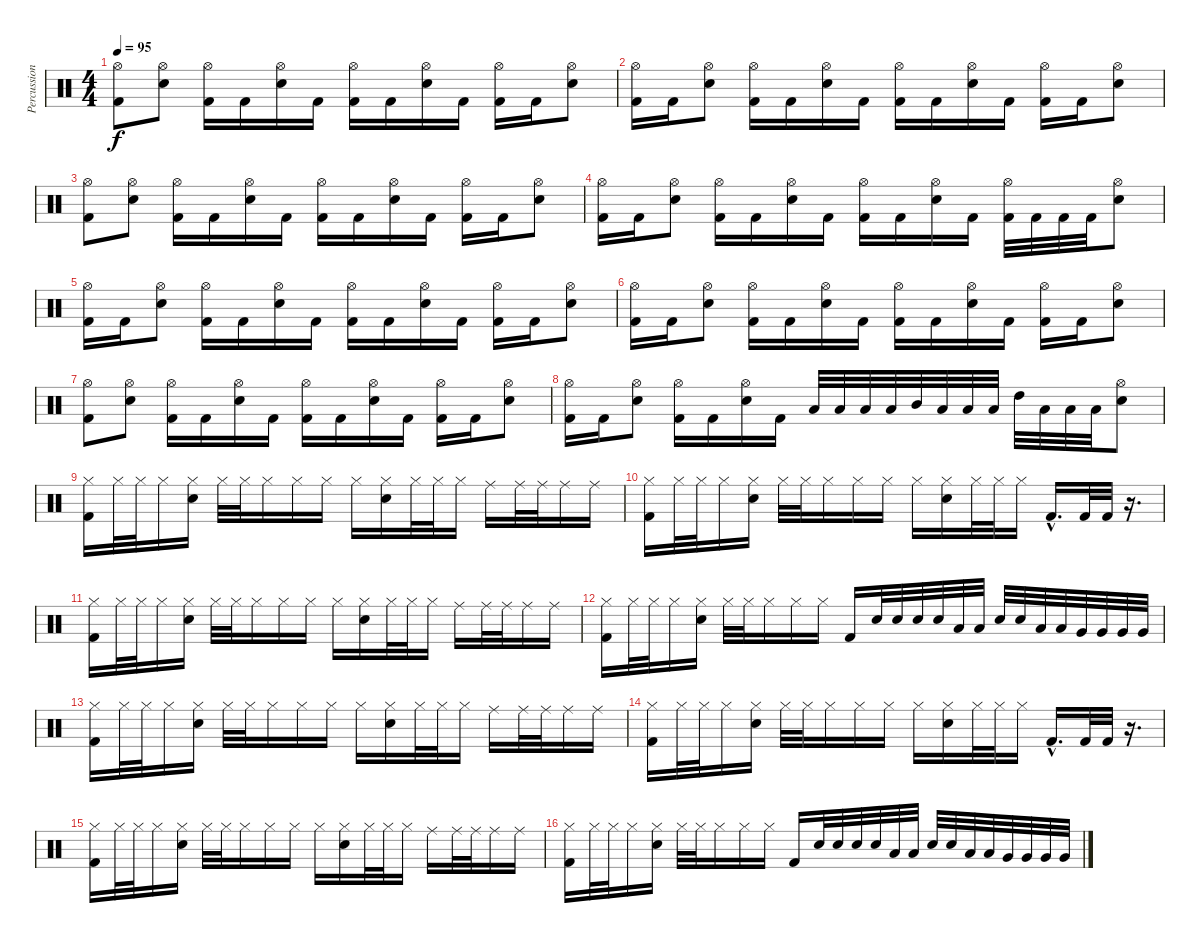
\track ("Percussion" "Percussion") {instrument percussion}
\staff {score}
\articulation defaults
\ts (4 4)
\tempo 95
\clef neutral
\ks c
("Hi-Hat (open)" "Kick (hit) 2").8{dy f} ("Hi-Hat (open)" "Electric Snare (hit)").8 ("Hi-Hat (open)" "Kick (hit) 2").16 "Kick (hit) 2".16 ("Hi-Hat (open)" "Electric Snare (hit)").16 "Kick (hit) 2".16 ("Hi-Hat (open)" "Kick (hit) 2").16 "Kick (hit) 2".16 ("Hi-Hat (open)" "Electric Snare (hit)").16 "Kick (hit) 2".16 ("Hi-Hat (open)" "Kick (hit) 2").16 "Kick (hit) 2".16 ("Hi-Hat (open)" "Electric Snare (hit)").8 |
("Hi-Hat (open)" "Kick (hit) 2").16 "Kick (hit) 2".16 ("Hi-Hat (open)" "Electric Snare (hit)").8 ("Hi-Hat (open)" "Kick (hit) 2").16 "Kick (hit) 2".16 ("Hi-Hat (open)" "Electric Snare (hit)").16 "Kick (hit) 2".16 ("Hi-Hat (open)" "Kick (hit) 2").16 "Kick (hit) 2".16 ("Hi-Hat (open)" "Electric Snare (hit)").16 "Kick (hit) 2".16 ("Hi-Hat (open)" "Kick (hit) 2").16 "Kick (hit) 2".16 ("Hi-Hat (open)" "Electric Snare (hit)").8 |
("Hi-Hat (open)" "Kick (hit) 2").8 ("Hi-Hat (open)" "Electric Snare (hit)").8 ("Hi-Hat (open)" "Kick (hit) 2").16 "Kick (hit) 2".16 ("Hi-Hat (open)" "Electric Snare (hit)").16 "Kick (hit) 2".16 ("Hi-Hat (open)" "Kick (hit) 2").16 "Kick (hit) 2".16 ("Hi-Hat (open)" "Electric Snare (hit)").16 "Kick (hit) 2".16 ("Hi-Hat (open)" "Kick (hit) 2").16 "Kick (hit) 2".16 ("Hi-Hat (open)" "Electric Snare (hit)").8 |
("Hi-Hat (open)" "Kick (hit) 2").16 "Kick (hit) 2".16 ("Hi-Hat (open)" "Electric Snare (hit)").8 ("Hi-Hat (open)" "Kick (hit) 2").16 "Kick (hit) 2".16 ("Hi-Hat (open)" "Electric Snare (hit)").16 "Kick (hit) 2".16 ("Hi-Hat (open)" "Kick (hit) 2").16 "Kick (hit) 2".16 ("Hi-Hat (open)" "Electric Snare (hit)").16 "Kick (hit) 2".16 ("Hi-Hat (open)" "Kick (hit) 2").32 "Kick (hit) 2".32 "Kick (hit) 2".32 "Kick (hit) 2".32 ("Hi-Hat (open)" "Electric Snare (hit)").8 |
("Hi-Hat (open)" "Kick (hit) 2").16 "Kick (hit) 2".16 ("Hi-Hat (open)" "Electric Snare (hit)").8 ("Hi-Hat (open)" "Kick (hit) 2").16 "Kick (hit) 2".16 ("Hi-Hat (open)" "Electric Snare (hit)").16 "Kick (hit) 2".16 ("Hi-Hat (open)" "Kick (hit) 2").16 "Kick (hit) 2".16 ("Hi-Hat (open)" "Electric Snare (hit)").16 "Kick (hit) 2".16 ("Hi-Hat (open)" "Kick (hit) 2").16 "Kick (hit) 2".16 ("Hi-Hat (open)" "Electric Snare (hit)").8 |
("Hi-Hat (open)" "Kick (hit) 2").16 "Kick (hit) 2".16 ("Hi-Hat (open)" "Electric Snare (hit)").8 ("Hi-Hat (open)" "Kick (hit) 2").16 "Kick (hit) 2".16 ("Hi-Hat (open)" "Electric Snare (hit)").16 "Kick (hit) 2".16 ("Hi-Hat (open)" "Kick (hit) 2").16 "Kick (hit) 2".16 ("Hi-Hat (open)" "Electric Snare (hit)").16 "Kick (hit) 2".16 ("Hi-Hat (open)" "Kick (hit) 2").16 "Kick (hit) 2".16 ("Hi-Hat (open)" "Electric Snare (hit)").8 |
("Hi-Hat (open)" "Kick (hit) 2").8 ("Hi-Hat (open)" "Electric Snare (hit)").8 ("Hi-Hat (open)" "Kick (hit) 2").16 "Kick (hit) 2".16 ("Hi-Hat (open)" "Electric Snare (hit)").16 "Kick (hit) 2".16 ("Hi-Hat (open)" "Kick (hit) 2").16 "Kick (hit) 2".16 ("Hi-Hat (open)" "Electric Snare (hit)").16 "Kick (hit) 2".16 ("Hi-Hat (open)" "Kick (hit) 2").16 "Kick (hit) 2".16 ("Hi-Hat (open)" "Electric Snare (hit)").8 |
("Hi-Hat (open)" "Kick (hit) 2").16 "Kick (hit) 2".16 ("Hi-Hat (open)" "Electric Snare (hit)").8 ("Hi-Hat (open)" "Kick (hit) 2").16 "Kick (hit) 2".16 ("Hi-Hat (open)" "Electric Snare (hit)").16 "Kick (hit) 2".16 "Low Tom (hit)".32 "Low Tom (hit)".32 "Low Tom (hit)".32 "Low Tom (hit)".32 "Mid Tom (hit)".32 "Low Tom (hit)".32 "Low Tom (hit)".32 "Low Tom (hit)".32 "High Tom (hit)".32 "Low Tom (hit)".32 "Low Tom (hit)".32 "Low Tom (hit)".32 ("Hi-Hat (open)" "Electric Snare (hit)").8 |
("Hi-Hat (closed)" "Kick (hit) 2").16 "Hi-Hat (closed)".32 "Hi-Hat (closed)".32 "Hi-Hat (closed)".16 ("Hi-Hat (closed)" "Electric Snare (hit)").16 "Hi-Hat (closed)".32 "Hi-Hat (closed)".32 "Hi-Hat (closed)".16 "Hi-Hat (closed)".16 "Hi-Hat (closed)".16 "Hi-Hat (closed)".16 ("Hi-Hat (closed)" "Electric Snare (hit)").16 "Hi-Hat (closed)".32 "Hi-Hat (closed)".32 "Hi-Hat (closed)".16 "Ride (middle)".16 "Ride (middle)".32 "Ride (middle)".32 "Ride (middle)".16 "Ride (middle)".16 |
("Hi-Hat (closed)" "Kick (hit) 2").16 "Hi-Hat (closed)".32 "Hi-Hat (closed)".32 "Hi-Hat (closed)".16 ("Hi-Hat (closed)" "Electric Snare (hit)").16 "Hi-Hat (closed)".32 "Hi-Hat (closed)".32 "Hi-Hat (closed)".16 "Hi-Hat (closed)".16 "Hi-Hat (closed)".16 "Hi-Hat (closed)".16 ("Hi-Hat (closed)" "Electric Snare (hit)").16 "Hi-Hat (closed)".32 "Hi-Hat (closed)".32 "Hi-Hat (closed)".16 "Kick (hit) 2"{hac}.16{d} "Kick (hit) 2".32 "Kick (hit) 2".32 r.16{d} |
("Hi-Hat (closed)" "Kick (hit) 2").16 "Hi-Hat (closed)".32 "Hi-Hat (closed)".32 "Hi-Hat (closed)".16 ("Hi-Hat (closed)" "Electric Snare (hit)").16 "Hi-Hat (closed)".32 "Hi-Hat (closed)".32 "Hi-Hat (closed)".16 "Hi-Hat (closed)".16 "Hi-Hat (closed)".16 "Hi-Hat (closed)".16 ("Hi-Hat (closed)" "Electric Snare (hit)").16 "Hi-Hat (closed)".32 "Hi-Hat (closed)".32 "Hi-Hat (closed)".16 "Ride (middle)".16 "Ride (middle)".32 "Ride (middle)".32 "Ride (middle)".16 "Ride (middle)".16 |
("Hi-Hat (closed)" "Kick (hit) 2").16 "Hi-Hat (closed)".32 "Hi-Hat (closed)".32 "Hi-Hat (closed)".16 ("Hi-Hat (closed)" "Electric Snare (hit)").16 "Hi-Hat (closed)".32 "Hi-Hat (closed)".32 "Hi-Hat (closed)".16 "Hi-Hat (closed)".16 "Hi-Hat (closed)".16 "Kick (hit) 2".16 "Electric Snare (hit)".32 "Electric Snare (hit)".32 "Electric Snare (hit)".32 "Electric Snare (hit)".32 "Low Tom (hit)".32 "Low Tom (hit)".32 "Electric Snare (hit)".32 "Electric Snare (hit)".32 "Low Tom (hit)".32 "Low Tom (hit)".32 "Very Low Tom (hit)".32 "Very Low Tom (hit)".32 "Very Low Tom (hit)".32 "Very Low Tom (hit)".32 |
("Hi-Hat (closed)" "Kick (hit) 2").16 "Hi-Hat (closed)".32 "Hi-Hat (closed)".32 "Hi-Hat (closed)".16 ("Hi-Hat (closed)" "Electric Snare (hit)").16 "Hi-Hat (closed)".32 "Hi-Hat (closed)".32 "Hi-Hat (closed)".16 "Hi-Hat (closed)".16 "Hi-Hat (closed)".16 "Hi-Hat (closed)".16 ("Hi-Hat (closed)" "Electric Snare (hit)").16 "Hi-Hat (closed)".32 "Hi-Hat (closed)".32 "Hi-Hat (closed)".16 "Ride (middle)".16 "Ride (middle)".32 "Ride (middle)".32 "Ride (middle)".16 "Ride (middle)".16 |
("Hi-Hat (closed)" "Kick (hit) 2").16 "Hi-Hat (closed)".32 "Hi-Hat (closed)".32 "Hi-Hat (closed)".16 ("Hi-Hat (closed)" "Electric Snare (hit)").16 "Hi-Hat (closed)".32 "Hi-Hat (closed)".32 "Hi-Hat (closed)".16 "Hi-Hat (closed)".16 "Hi-Hat (closed)".16 "Hi-Hat (closed)".16 ("Hi-Hat (closed)" "Electric Snare (hit)").16 "Hi-Hat (closed)".32 "Hi-Hat (closed)".32 "Hi-Hat (closed)".16 "Kick (hit) 2"{hac}.16{d} "Kick (hit) 2".32 "Kick (hit) 2".32 r.16{d} |
("Hi-Hat (closed)" "Kick (hit) 2").16 "Hi-Hat (closed)".32 "Hi-Hat (closed)".32 "Hi-Hat (closed)".16 ("Hi-Hat (closed)" "Electric Snare (hit)").16 "Hi-Hat (closed)".32 "Hi-Hat (closed)".32 "Hi-Hat (closed)".16 "Hi-Hat (closed)".16 "Hi-Hat (closed)".16 "Hi-Hat (closed)".16 ("Hi-Hat (closed)" "Electric Snare (hit)").16 "Hi-Hat (closed)".32 "Hi-Hat (closed)".32 "Hi-Hat (closed)".16 "Ride (middle)".16 "Ride (middle)".32 "Ride (middle)".32 "Ride (middle)".16 "Ride (middle)".16 |
("Hi-Hat (closed)" "Kick (hit) 2").16 "Hi-Hat (closed)".32 "Hi-Hat (closed)".32 "Hi-Hat (closed)".16 ("Hi-Hat (closed)" "Electric Snare (hit)").16 "Hi-Hat (closed)".32 "Hi-Hat (closed)".32 "Hi-Hat (closed)".16 "Hi-Hat (closed)".16 "Hi-Hat (closed)".16 "Kick (hit) 2".16 "Electric Snare (hit)".32 "Electric Snare (hit)".32 "Electric Snare (hit)".32 "Electric Snare (hit)".32 "Low Tom (hit)".32 "Low Tom (hit)".32 "Electric Snare (hit)".32 "Electric Snare (hit)".32 "Low Tom (hit)".32 "Low Tom (hit)".32 "Very Low Tom (hit)".32 "Very Low Tom (hit)".32 "Very Low Tom (hit)".32 "Very Low Tom (hit)".32
